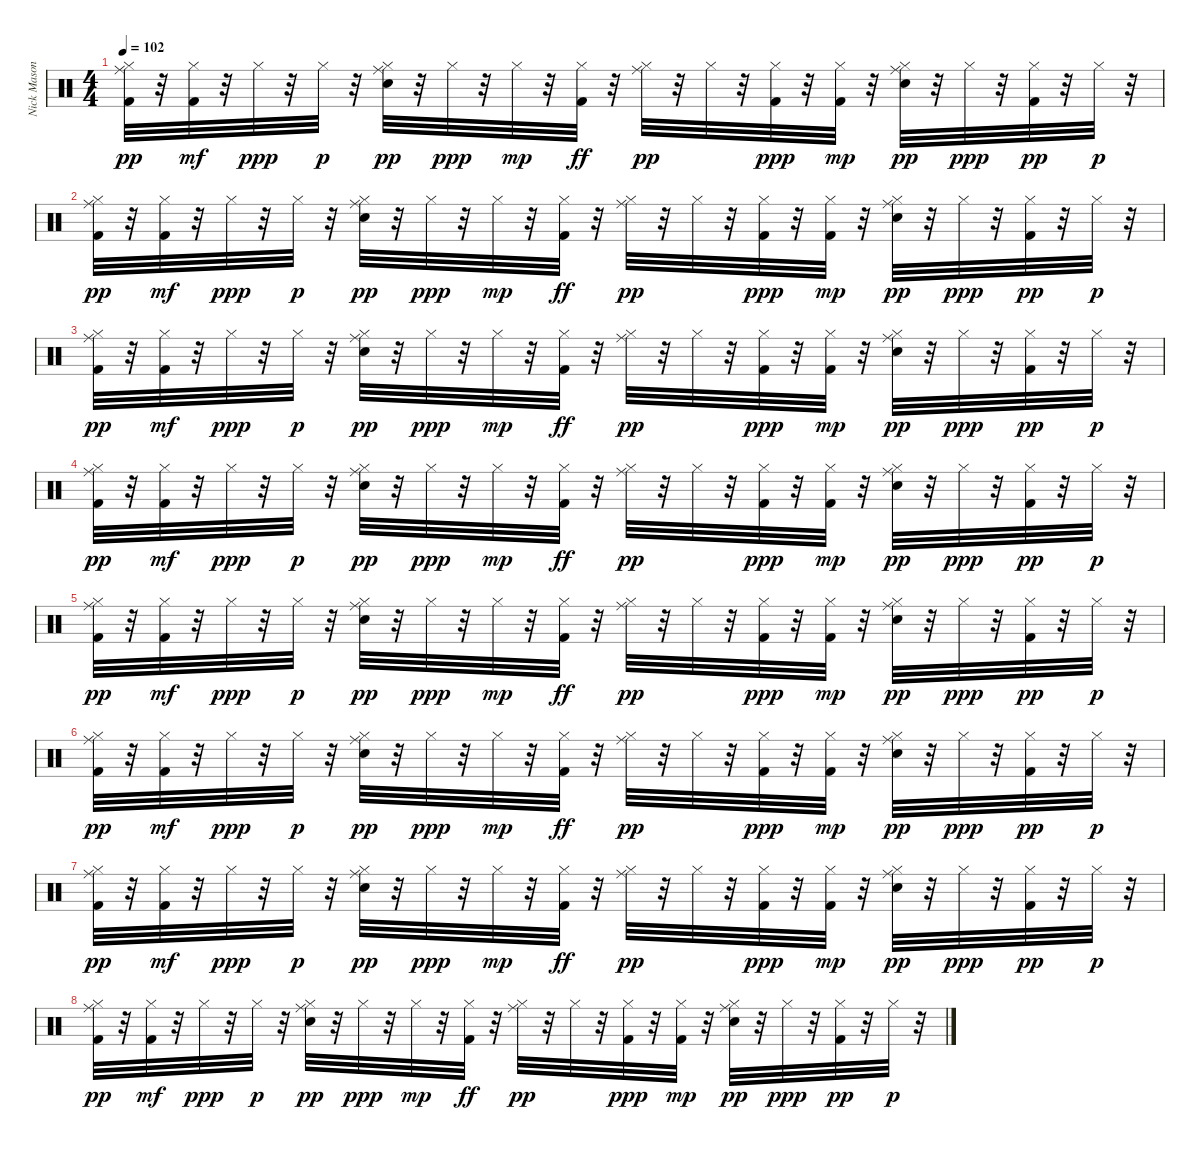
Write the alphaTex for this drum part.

\track ("Nick Mason / Gary Wallis" "Nick Mason") {instrument percussion}
\staff {score}
\articulation defaults
\ts (4 4)
\tempo 102
\clef neutral
\ks c
("Kick (hit) 2" "Hi-Hat (closed)" "Ride (middle)").32{dy pp} r.32 ("Hi-Hat (closed)" "Kick (hit) 2").32{dy mf} r.32 "Hi-Hat (closed)".32{dy ppp} r.32 "Hi-Hat (closed)".32{dy p} r.32 ("Snare (hit) 2" "Hi-Hat (closed)" "Ride (middle)").32{dy pp} r.32 "Hi-Hat (closed)".32{dy ppp} r.32 "Hi-Hat (closed)".32{dy mp} r.32 ("Hi-Hat (closed)" "Kick (hit) 2").32{dy ff} r.32 ("Hi-Hat (closed)" "Ride (middle)").32{dy pp} r.32 "Hi-Hat (closed)".32 r.32 ("Hi-Hat (closed)" "Kick (hit) 2").32{dy ppp} r.32 ("Hi-Hat (closed)" "Kick (hit) 2").32{dy mp} r.32 ("Snare (hit) 2" "Hi-Hat (closed)" "Ride (middle)").32{dy pp} r.32 "Hi-Hat (closed)".32{dy ppp} r.32 ("Kick (hit) 2" "Hi-Hat (closed)").32{dy pp} r.32 "Hi-Hat (closed)".32{dy p} r.32 |
("Kick (hit) 2" "Hi-Hat (closed)" "Ride (middle)").32{dy pp} r.32 ("Hi-Hat (closed)" "Kick (hit) 2").32{dy mf} r.32 "Hi-Hat (closed)".32{dy ppp} r.32 "Hi-Hat (closed)".32{dy p} r.32 ("Snare (hit) 2" "Hi-Hat (closed)" "Ride (middle)").32{dy pp} r.32 "Hi-Hat (closed)".32{dy ppp} r.32 "Hi-Hat (closed)".32{dy mp} r.32 ("Hi-Hat (closed)" "Kick (hit) 2").32{dy ff} r.32 ("Hi-Hat (closed)" "Ride (middle)").32{dy pp} r.32 "Hi-Hat (closed)".32 r.32 ("Hi-Hat (closed)" "Kick (hit) 2").32{dy ppp} r.32 ("Hi-Hat (closed)" "Kick (hit) 2").32{dy mp} r.32 ("Snare (hit) 2" "Hi-Hat (closed)" "Ride (middle)").32{dy pp} r.32 "Hi-Hat (closed)".32{dy ppp} r.32 ("Kick (hit) 2" "Hi-Hat (closed)").32{dy pp} r.32 "Hi-Hat (closed)".32{dy p} r.32 |
("Kick (hit) 2" "Hi-Hat (closed)" "Ride (middle)").32{dy pp} r.32 ("Hi-Hat (closed)" "Kick (hit) 2").32{dy mf} r.32 "Hi-Hat (closed)".32{dy ppp} r.32 "Hi-Hat (closed)".32{dy p} r.32 ("Snare (hit) 2" "Hi-Hat (closed)" "Ride (middle)").32{dy pp} r.32 "Hi-Hat (closed)".32{dy ppp} r.32 "Hi-Hat (closed)".32{dy mp} r.32 ("Hi-Hat (closed)" "Kick (hit) 2").32{dy ff} r.32 ("Hi-Hat (closed)" "Ride (middle)").32{dy pp} r.32 "Hi-Hat (closed)".32 r.32 ("Hi-Hat (closed)" "Kick (hit) 2").32{dy ppp} r.32 ("Hi-Hat (closed)" "Kick (hit) 2").32{dy mp} r.32 ("Snare (hit) 2" "Hi-Hat (closed)" "Ride (middle)").32{dy pp} r.32 "Hi-Hat (closed)".32{dy ppp} r.32 ("Kick (hit) 2" "Hi-Hat (closed)").32{dy pp} r.32 "Hi-Hat (closed)".32{dy p} r.32 |
("Kick (hit) 2" "Hi-Hat (closed)" "Ride (middle)").32{dy pp} r.32 ("Hi-Hat (closed)" "Kick (hit) 2").32{dy mf} r.32 "Hi-Hat (closed)".32{dy ppp} r.32 "Hi-Hat (closed)".32{dy p} r.32 ("Snare (hit) 2" "Hi-Hat (closed)" "Ride (middle)").32{dy pp} r.32 "Hi-Hat (closed)".32{dy ppp} r.32 "Hi-Hat (closed)".32{dy mp} r.32 ("Hi-Hat (closed)" "Kick (hit) 2").32{dy ff} r.32 ("Hi-Hat (closed)" "Ride (middle)").32{dy pp} r.32 "Hi-Hat (closed)".32 r.32 ("Hi-Hat (closed)" "Kick (hit) 2").32{dy ppp} r.32 ("Hi-Hat (closed)" "Kick (hit) 2").32{dy mp} r.32 ("Snare (hit) 2" "Hi-Hat (closed)" "Ride (middle)").32{dy pp} r.32 "Hi-Hat (closed)".32{dy ppp} r.32 ("Kick (hit) 2" "Hi-Hat (closed)").32{dy pp} r.32 "Hi-Hat (closed)".32{dy p} r.32 |
("Kick (hit) 2" "Hi-Hat (closed)" "Ride (middle)").32{dy pp} r.32 ("Hi-Hat (closed)" "Kick (hit) 2").32{dy mf} r.32 "Hi-Hat (closed)".32{dy ppp} r.32 "Hi-Hat (closed)".32{dy p} r.32 ("Snare (hit) 2" "Hi-Hat (closed)" "Ride (middle)").32{dy pp} r.32 "Hi-Hat (closed)".32{dy ppp} r.32 "Hi-Hat (closed)".32{dy mp} r.32 ("Hi-Hat (closed)" "Kick (hit) 2").32{dy ff} r.32 ("Hi-Hat (closed)" "Ride (middle)").32{dy pp} r.32 "Hi-Hat (closed)".32 r.32 ("Hi-Hat (closed)" "Kick (hit) 2").32{dy ppp} r.32 ("Hi-Hat (closed)" "Kick (hit) 2").32{dy mp} r.32 ("Snare (hit) 2" "Hi-Hat (closed)" "Ride (middle)").32{dy pp} r.32 "Hi-Hat (closed)".32{dy ppp} r.32 ("Kick (hit) 2" "Hi-Hat (closed)").32{dy pp} r.32 "Hi-Hat (closed)".32{dy p} r.32 |
("Kick (hit) 2" "Hi-Hat (closed)" "Ride (middle)").32{dy pp} r.32 ("Hi-Hat (closed)" "Kick (hit) 2").32{dy mf} r.32 "Hi-Hat (closed)".32{dy ppp} r.32 "Hi-Hat (closed)".32{dy p} r.32 ("Snare (hit) 2" "Hi-Hat (closed)" "Ride (middle)").32{dy pp} r.32 "Hi-Hat (closed)".32{dy ppp} r.32 "Hi-Hat (closed)".32{dy mp} r.32 ("Hi-Hat (closed)" "Kick (hit) 2").32{dy ff} r.32 ("Hi-Hat (closed)" "Ride (middle)").32{dy pp} r.32 "Hi-Hat (closed)".32 r.32 ("Hi-Hat (closed)" "Kick (hit) 2").32{dy ppp} r.32 ("Hi-Hat (closed)" "Kick (hit) 2").32{dy mp} r.32 ("Snare (hit) 2" "Hi-Hat (closed)" "Ride (middle)").32{dy pp} r.32 "Hi-Hat (closed)".32{dy ppp} r.32 ("Kick (hit) 2" "Hi-Hat (closed)").32{dy pp} r.32 "Hi-Hat (closed)".32{dy p} r.32 |
("Kick (hit) 2" "Hi-Hat (closed)" "Ride (middle)").32{dy pp} r.32 ("Hi-Hat (closed)" "Kick (hit) 2").32{dy mf} r.32 "Hi-Hat (closed)".32{dy ppp} r.32 "Hi-Hat (closed)".32{dy p} r.32 ("Snare (hit) 2" "Hi-Hat (closed)" "Ride (middle)").32{dy pp} r.32 "Hi-Hat (closed)".32{dy ppp} r.32 "Hi-Hat (closed)".32{dy mp} r.32 ("Hi-Hat (closed)" "Kick (hit) 2").32{dy ff} r.32 ("Hi-Hat (closed)" "Ride (middle)").32{dy pp} r.32 "Hi-Hat (closed)".32 r.32 ("Hi-Hat (closed)" "Kick (hit) 2").32{dy ppp} r.32 ("Hi-Hat (closed)" "Kick (hit) 2").32{dy mp} r.32 ("Snare (hit) 2" "Hi-Hat (closed)" "Ride (middle)").32{dy pp} r.32 "Hi-Hat (closed)".32{dy ppp} r.32 ("Kick (hit) 2" "Hi-Hat (closed)").32{dy pp} r.32 "Hi-Hat (closed)".32{dy p} r.32 |
("Kick (hit) 2" "Hi-Hat (closed)" "Ride (middle)").32{dy pp} r.32 ("Hi-Hat (closed)" "Kick (hit) 2").32{dy mf} r.32 "Hi-Hat (closed)".32{dy ppp} r.32 "Hi-Hat (closed)".32{dy p} r.32 ("Snare (hit) 2" "Hi-Hat (closed)" "Ride (middle)").32{dy pp} r.32 "Hi-Hat (closed)".32{dy ppp} r.32 "Hi-Hat (closed)".32{dy mp} r.32 ("Hi-Hat (closed)" "Kick (hit) 2").32{dy ff} r.32 ("Hi-Hat (closed)" "Ride (middle)").32{dy pp} r.32 "Hi-Hat (closed)".32 r.32 ("Hi-Hat (closed)" "Kick (hit) 2").32{dy ppp} r.32 ("Hi-Hat (closed)" "Kick (hit) 2").32{dy mp} r.32 ("Snare (hit) 2" "Hi-Hat (closed)" "Ride (middle)").32{dy pp} r.32 "Hi-Hat (closed)".32{dy ppp} r.32 ("Kick (hit) 2" "Hi-Hat (closed)").32{dy pp} r.32 "Hi-Hat (closed)".32{dy p} r.32
